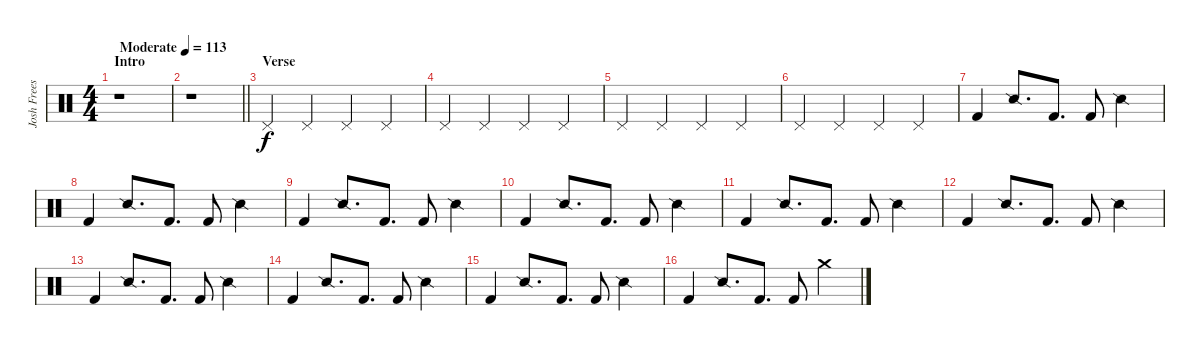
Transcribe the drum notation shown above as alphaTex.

\track ("Josh Freese (Studio Drummer)" "Josh Frees") {instrument percussion}
\staff {score}
\articulation defaults
\ts (4 4)
\section ("" "Intro")
\tempo (113 "Moderate")
\clef neutral
\ks c
r.1{dy f} |
\barLineRight lightlight
r.1 |
\section ("" "Verse")
"Pedal Hi-Hat (hit)".4 "Pedal Hi-Hat (hit)".4 "Pedal Hi-Hat (hit)".4 "Pedal Hi-Hat (hit)".4 |
"Pedal Hi-Hat (hit)".4 "Pedal Hi-Hat (hit)".4 "Pedal Hi-Hat (hit)".4 "Pedal Hi-Hat (hit)".4 |
"Pedal Hi-Hat (hit)".4 "Pedal Hi-Hat (hit)".4 "Pedal Hi-Hat (hit)".4 "Pedal Hi-Hat (hit)".4 |
"Pedal Hi-Hat (hit)".4 "Pedal Hi-Hat (hit)".4 "Pedal Hi-Hat (hit)".4 "Pedal Hi-Hat (hit)".4 |
"Kick (hit) 2".4 "Snare (side stick) 2".8{d} "Kick (hit) 2".8{d} "Kick (hit) 2".8 "Snare (side stick) 2".4 |
"Kick (hit) 2".4 "Snare (side stick) 2".8{d} "Kick (hit) 2".8{d} "Kick (hit) 2".8 "Snare (side stick) 2".4 |
"Kick (hit) 2".4 "Snare (side stick) 2".8{d} "Kick (hit) 2".8{d} "Kick (hit) 2".8 "Snare (side stick) 2".4 |
"Kick (hit) 2".4 "Snare (side stick) 2".8{d} "Kick (hit) 2".8{d} "Kick (hit) 2".8 "Snare (side stick) 2".4 |
"Kick (hit) 2".4 "Snare (side stick) 2".8{d} "Kick (hit) 2".8{d} "Kick (hit) 2".8 "Snare (side stick) 2".4 |
"Kick (hit) 2".4 "Snare (side stick) 2".8{d} "Kick (hit) 2".8{d} "Kick (hit) 2".8 "Snare (side stick) 2".4 |
"Kick (hit) 2".4 "Snare (side stick) 2".8{d} "Kick (hit) 2".8{d} "Kick (hit) 2".8 "Snare (side stick) 2".4 |
"Kick (hit) 2".4 "Snare (side stick) 2".8{d} "Kick (hit) 2".8{d} "Kick (hit) 2".8 "Snare (side stick) 2".4 |
"Kick (hit) 2".4 "Snare (side stick) 2".8{d} "Kick (hit) 2".8{d} "Kick (hit) 2".8 "Snare (side stick) 2".4 |
"Kick (hit) 2".4 "Snare (side stick) 2".8{d} "Kick (hit) 2".8{d} "Kick (hit) 2".8 "Crash medium (hit)".4
